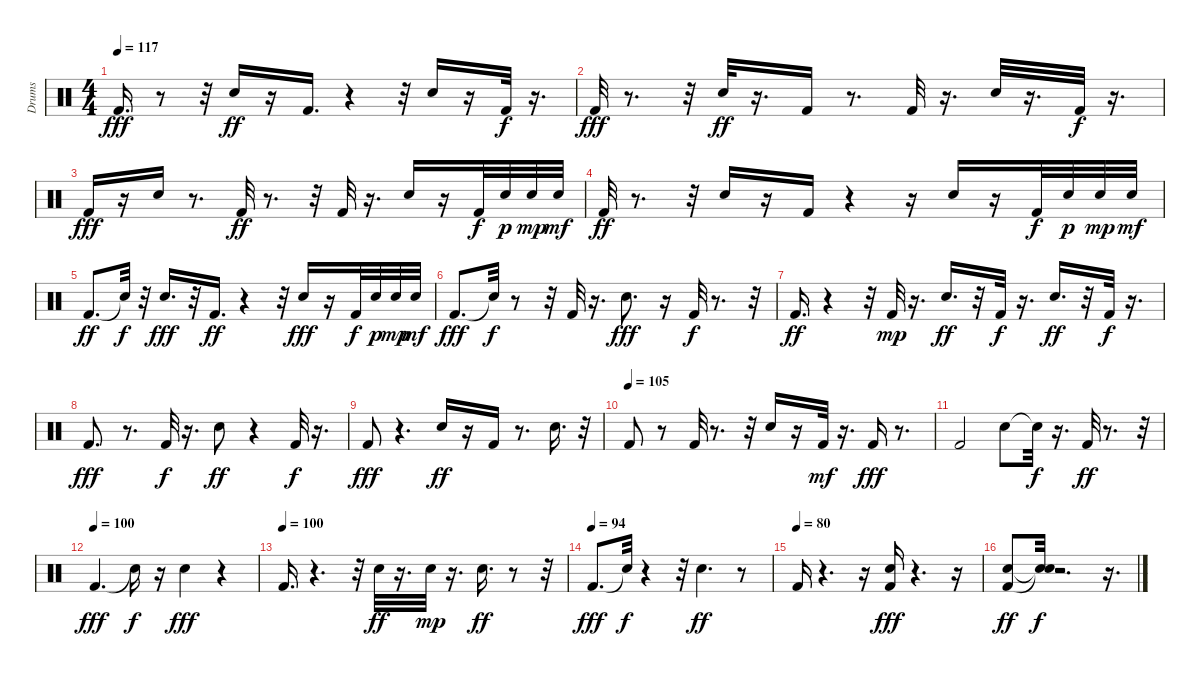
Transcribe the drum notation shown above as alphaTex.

\track ("Drums" "Drums") {instrument percussion}
\staff {score}
\articulation defaults
\ts (4 4)
\tempo 117
\clef neutral
\ks c "Kick (hit) 2".16{d dy fff}
r.8 r.32 "Snare (hit) 2".16{dy ff} r.16 "Kick (hit) 2".16{d} r.4 r.32 "Snare (hit) 2".16 r.16 "Kick (hit) 2".32{dy f} r.16{d} |
"Kick (hit) 2".32{dy fff} r.8{d} r.32 "Snare (hit) 2".32{dy ff} r.16{d} "Kick (hit) 2".16 r.8{d} "Kick (hit) 2".32 r.16{d} "Snare (hit) 2".32 r.16{d} "Kick (hit) 2".32{dy f} r.16{d} |
"Kick (hit) 2".16{dy fff} r.16 "Snare (hit) 2".16 r.8{d} "Kick (hit) 2".32{dy ff} r.8{d} r.32 "Kick (hit) 2".32 r.16{d} "Snare (hit) 2".16 r.16 "Kick (hit) 2".32{dy f} "Snare (hit) 2".32{dy p} "Snare (hit) 2".32{dy mp} "Snare (hit) 2".32{dy mf} |
"Kick (hit) 2".32{dy ff} r.8{d} r.32 "Snare (hit) 2".16 r.16 "Kick (hit) 2".16 r.4 r.16 "Snare (hit) 2".16 r.16 "Kick (hit) 2".32{dy f} "Snare (hit) 2".32{dy p} "Snare (hit) 2".32{dy mp} "Snare (hit) 2".32{dy mf} |
"Kick (hit) 2".8{d dy ff} "Snare (hit)"{t}.32{dy f} r.32 "Snare (hit) 2".16{d dy fff} r.32 "Kick (hit) 2".16{d dy ff} r.4 r.32 "Snare (hit) 2".16{dy fff} r.16 "Kick (hit) 2".32{dy f} "Snare (hit) 2".32{dy p} "Snare (hit) 2".32{dy mp} "Snare (hit) 2".32{dy mf} |
"Kick (hit) 2".8{d dy fff} "Snare (hit)"{t}.32{dy f} r.8 r.32 "Kick (hit) 2".32 r.16{d} "Snare (hit) 2".8{d dy fff} r.16 "Kick (hit) 2".32{dy f} r.8{d} r.32 |
"Kick (hit) 2".16{d dy ff} r.4 r.32 "Kick (hit) 2".32{dy mp} r.16{d} "Snare (hit) 2".16{d dy ff} r.32 "Kick (hit) 2".32{dy f} r.16{d} "Snare (hit) 2".16{d dy ff} r.32 "Kick (hit) 2".32{dy f} r.16{d} |
"Kick (hit) 2".8{d dy fff} r.8{d} "Kick (hit) 2".32{dy f} r.16{d} "Snare (hit) 2".8{dy ff} r.4 "Kick (hit) 2".32{dy f} r.16{d} |
"Kick (hit) 2".8{dy fff} r.4{d} "Snare (hit) 2".16{dy ff} r.16 "Kick (hit) 2".16 r.8{d} "Snare (hit) 2".16{d} r.32 |
\tempo (105)
"Kick (hit) 2".8 r.8 "Kick (hit) 2".32 r.8{d} r.32 "Snare (hit) 2".16 r.16 "Kick (hit) 2".32{dy mf} r.16{d} "Kick (hit) 2".16{dy fff} r.8{d} |
"Kick (hit) 2".2 "Snare (hit) 2".8 "Snare (hit)"{t}.32{dy f} r.16{d} "Kick (hit) 2".32{dy ff} r.8{d} r.32 |
\tempo (100)
"Kick (hit) 2".4{d dy fff} "Snare (hit)"{t}.16{dy f} r.16 "Snare (hit) 2".4{dy fff} r.4 |
\tempo (100)
"Kick (hit) 2".16{d} r.4{d} r.32 "Snare (hit) 2".32{dy ff} r.16{d} "Snare (hit) 2".32{dy mp} r.16{d} "Snare (hit) 2".16{d dy ff} r.8 r.32 |
\tempo (94)
"Kick (hit) 2".8{d dy fff} "Snare (hit)"{t}.32{dy f} r.4 r.32 "Snare (hit) 2".4{d dy ff} r.8 |
\tempo (80)
"Kick (hit) 2".16 r.4{d} r.16 ("Kick (hit) 2" "Snare (hit) 2").16{dy fff} r.4{d} r.16 |
("Kick (hit) 2" "Snare (hit) 2").8{dy ff} ("Snare (hit)"{t} "Snare (hit)"{t}).32{dy f} r.2{d} r.16{d}
